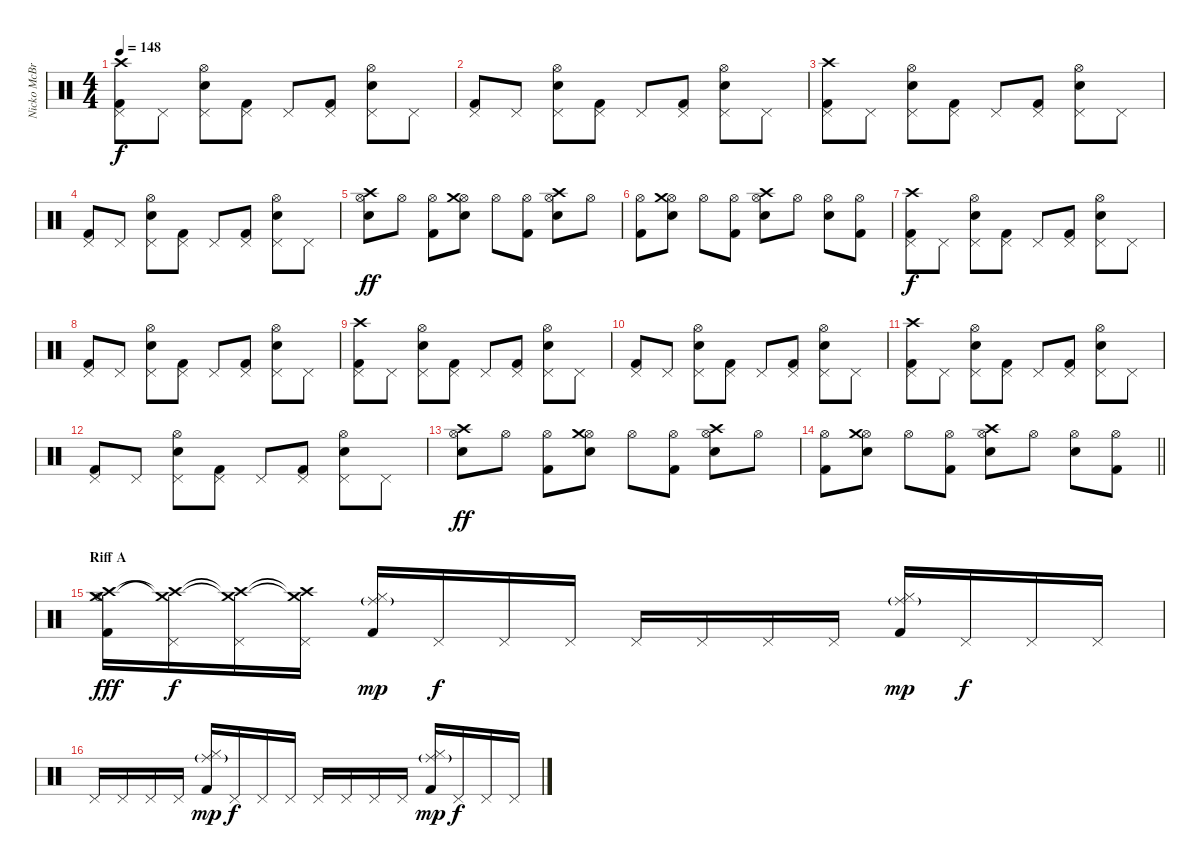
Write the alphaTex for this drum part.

\track ("Nicko McBrain" "Nicko McBr") {instrument percussion}
\staff {score}
\articulation defaults
\ts (4 4)
\tempo 148
\clef neutral
\ks c
("Kick (hit) 2" "Pedal Hi-Hat (hit)" "Crash high (hit)").8{dy f} "Pedal Hi-Hat (hit)".8 ("Snare (hit) 2" "Pedal Hi-Hat (hit)" "Hi-Hat (open)").8 ("Kick (hit) 2" "Pedal Hi-Hat (hit)").8 "Pedal Hi-Hat (hit)".8 ("Kick (hit) 2" "Pedal Hi-Hat (hit)").8 ("Snare (hit) 2" "Pedal Hi-Hat (hit)" "Hi-Hat (open)").8 "Pedal Hi-Hat (hit)".8 |
("Kick (hit) 2" "Pedal Hi-Hat (hit)").8 "Pedal Hi-Hat (hit)".8 ("Snare (hit) 2" "Pedal Hi-Hat (hit)" "Hi-Hat (open)").8 ("Kick (hit) 2" "Pedal Hi-Hat (hit)").8 "Pedal Hi-Hat (hit)".8 ("Kick (hit) 2" "Pedal Hi-Hat (hit)").8 ("Snare (hit) 2" "Pedal Hi-Hat (hit)" "Hi-Hat (open)").8 "Pedal Hi-Hat (hit)".8 |
("Kick (hit) 2" "Pedal Hi-Hat (hit)" "Crash high (hit)").8 "Pedal Hi-Hat (hit)".8 ("Snare (hit) 2" "Pedal Hi-Hat (hit)" "Hi-Hat (open)").8 ("Kick (hit) 2" "Pedal Hi-Hat (hit)").8 "Pedal Hi-Hat (hit)".8 ("Kick (hit) 2" "Pedal Hi-Hat (hit)").8 ("Snare (hit) 2" "Pedal Hi-Hat (hit)" "Hi-Hat (open)").8 "Pedal Hi-Hat (hit)".8 |
("Kick (hit) 2" "Pedal Hi-Hat (hit)").8 "Pedal Hi-Hat (hit)".8 ("Snare (hit) 2" "Pedal Hi-Hat (hit)" "Hi-Hat (open)").8 ("Kick (hit) 2" "Pedal Hi-Hat (hit)").8 "Pedal Hi-Hat (hit)".8 ("Kick (hit) 2" "Pedal Hi-Hat (hit)").8 ("Snare (hit) 2" "Pedal Hi-Hat (hit)" "Hi-Hat (open)").8 "Pedal Hi-Hat (hit)".8 |
("Snare (hit) 2" "Hi-Hat (open)" "Crash high (hit)").8{dy ff} "Hi-Hat (open)".8 ("Kick (hit) 2" "Hi-Hat (open)").8 ("Snare (hit) 2" "Hi-Hat (open)" "Crash medium (hit)").8 "Hi-Hat (open)".8 ("Kick (hit) 2" "Hi-Hat (open)").8 ("Snare (hit) 2" "Hi-Hat (open)" "Crash high (hit)").8 "Hi-Hat (open)".8 |
("Kick (hit) 2" "Hi-Hat (open)").8 ("Snare (hit) 2" "Hi-Hat (open)" "Crash medium (hit)").8 "Hi-Hat (open)".8 ("Kick (hit) 2" "Hi-Hat (open)").8 ("Snare (hit) 2" "Hi-Hat (open)" "Crash high (hit)").8 "Hi-Hat (open)".8 ("Snare (hit) 2" "Hi-Hat (open)").8 ("Kick (hit) 2" "Hi-Hat (open)").8 |
("Kick (hit) 2" "Pedal Hi-Hat (hit)" "Crash high (hit)").8{dy f} "Pedal Hi-Hat (hit)".8 ("Snare (hit) 2" "Pedal Hi-Hat (hit)" "Hi-Hat (open)").8 ("Kick (hit) 2" "Pedal Hi-Hat (hit)").8 "Pedal Hi-Hat (hit)".8 ("Kick (hit) 2" "Pedal Hi-Hat (hit)").8 ("Snare (hit) 2" "Pedal Hi-Hat (hit)" "Hi-Hat (open)").8 "Pedal Hi-Hat (hit)".8 |
("Kick (hit) 2" "Pedal Hi-Hat (hit)").8 "Pedal Hi-Hat (hit)".8 ("Snare (hit) 2" "Pedal Hi-Hat (hit)" "Hi-Hat (open)").8 ("Kick (hit) 2" "Pedal Hi-Hat (hit)").8 "Pedal Hi-Hat (hit)".8 ("Kick (hit) 2" "Pedal Hi-Hat (hit)").8 ("Snare (hit) 2" "Pedal Hi-Hat (hit)" "Hi-Hat (open)").8 "Pedal Hi-Hat (hit)".8 |
("Kick (hit) 2" "Pedal Hi-Hat (hit)" "Crash high (hit)").8 "Pedal Hi-Hat (hit)".8 ("Snare (hit) 2" "Pedal Hi-Hat (hit)" "Hi-Hat (open)").8 ("Kick (hit) 2" "Pedal Hi-Hat (hit)").8 "Pedal Hi-Hat (hit)".8 ("Kick (hit) 2" "Pedal Hi-Hat (hit)").8 ("Snare (hit) 2" "Pedal Hi-Hat (hit)" "Hi-Hat (open)").8 "Pedal Hi-Hat (hit)".8 |
("Kick (hit) 2" "Pedal Hi-Hat (hit)").8 "Pedal Hi-Hat (hit)".8 ("Snare (hit) 2" "Pedal Hi-Hat (hit)" "Hi-Hat (open)").8 ("Kick (hit) 2" "Pedal Hi-Hat (hit)").8 "Pedal Hi-Hat (hit)".8 ("Kick (hit) 2" "Pedal Hi-Hat (hit)").8 ("Snare (hit) 2" "Pedal Hi-Hat (hit)" "Hi-Hat (open)").8 "Pedal Hi-Hat (hit)".8 |
("Kick (hit) 2" "Pedal Hi-Hat (hit)" "Crash high (hit)").8 "Pedal Hi-Hat (hit)".8 ("Snare (hit) 2" "Pedal Hi-Hat (hit)" "Hi-Hat (open)").8 ("Kick (hit) 2" "Pedal Hi-Hat (hit)").8 "Pedal Hi-Hat (hit)".8 ("Kick (hit) 2" "Pedal Hi-Hat (hit)").8 ("Snare (hit) 2" "Pedal Hi-Hat (hit)" "Hi-Hat (open)").8 "Pedal Hi-Hat (hit)".8 |
("Kick (hit) 2" "Pedal Hi-Hat (hit)").8 "Pedal Hi-Hat (hit)".8 ("Snare (hit) 2" "Pedal Hi-Hat (hit)" "Hi-Hat (open)").8 ("Kick (hit) 2" "Pedal Hi-Hat (hit)").8 "Pedal Hi-Hat (hit)".8 ("Kick (hit) 2" "Pedal Hi-Hat (hit)").8 ("Snare (hit) 2" "Pedal Hi-Hat (hit)" "Hi-Hat (open)").8 "Pedal Hi-Hat (hit)".8 |
("Snare (hit) 2" "Hi-Hat (open)" "Crash high (hit)").8{dy ff} "Hi-Hat (open)".8 ("Kick (hit) 2" "Hi-Hat (open)").8 ("Snare (hit) 2" "Hi-Hat (open)" "Crash medium (hit)").8 "Hi-Hat (open)".8 ("Kick (hit) 2" "Hi-Hat (open)").8 ("Snare (hit) 2" "Hi-Hat (open)" "Crash high (hit)").8 "Hi-Hat (open)".8 |
\barLineRight lightlight
("Kick (hit) 2" "Hi-Hat (open)").8 ("Snare (hit) 2" "Hi-Hat (open)" "Crash medium (hit)").8 "Hi-Hat (open)".8 ("Kick (hit) 2" "Hi-Hat (open)").8 ("Snare (hit) 2" "Hi-Hat (open)" "Crash high (hit)").8 "Hi-Hat (open)".8 ("Snare (hit) 2" "Hi-Hat (open)").8 ("Kick (hit) 2" "Hi-Hat (open)").8 |
\section ("" "Riff A")
("Kick (hit) 2" "Hi-Hat (open)" "Crash high (hit)" "Crash medium (hit)").16{dy fff} ("Pedal Hi-Hat (hit)" "Crash high (hit)"{t} "Crash medium (hit)"{t}).16{dy f} ("Pedal Hi-Hat (hit)" "Crash high (hit)"{t} "Crash medium (hit)"{t}).16 ("Pedal Hi-Hat (hit)" "Crash high (hit)"{t} "Crash medium (hit)"{t}).16 ("Kick (hit) 2" "Hi-Hat (closed)" "Ride (middle)"{g}).16{dy mp} "Pedal Hi-Hat (hit)".16{dy f} "Pedal Hi-Hat (hit)".16 "Pedal Hi-Hat (hit)".16 "Pedal Hi-Hat (hit)".16 "Pedal Hi-Hat (hit)".16 "Pedal Hi-Hat (hit)".16 "Pedal Hi-Hat (hit)".16 ("Kick (hit) 2" "Hi-Hat (closed)" "Ride (middle)"{g}).16{dy mp} "Pedal Hi-Hat (hit)".16{dy f} "Pedal Hi-Hat (hit)".16 "Pedal Hi-Hat (hit)".16 |
"Pedal Hi-Hat (hit)".16 "Pedal Hi-Hat (hit)".16 "Pedal Hi-Hat (hit)".16 "Pedal Hi-Hat (hit)".16 ("Kick (hit) 2" "Hi-Hat (closed)" "Ride (middle)"{g}).16{dy mp} "Pedal Hi-Hat (hit)".16{dy f} "Pedal Hi-Hat (hit)".16 "Pedal Hi-Hat (hit)".16 "Pedal Hi-Hat (hit)".16 "Pedal Hi-Hat (hit)".16 "Pedal Hi-Hat (hit)".16 "Pedal Hi-Hat (hit)".16 ("Kick (hit) 2" "Hi-Hat (closed)" "Ride (middle)"{g}).16{dy mp} "Pedal Hi-Hat (hit)".16{dy f} "Pedal Hi-Hat (hit)".16 "Pedal Hi-Hat (hit)".16
